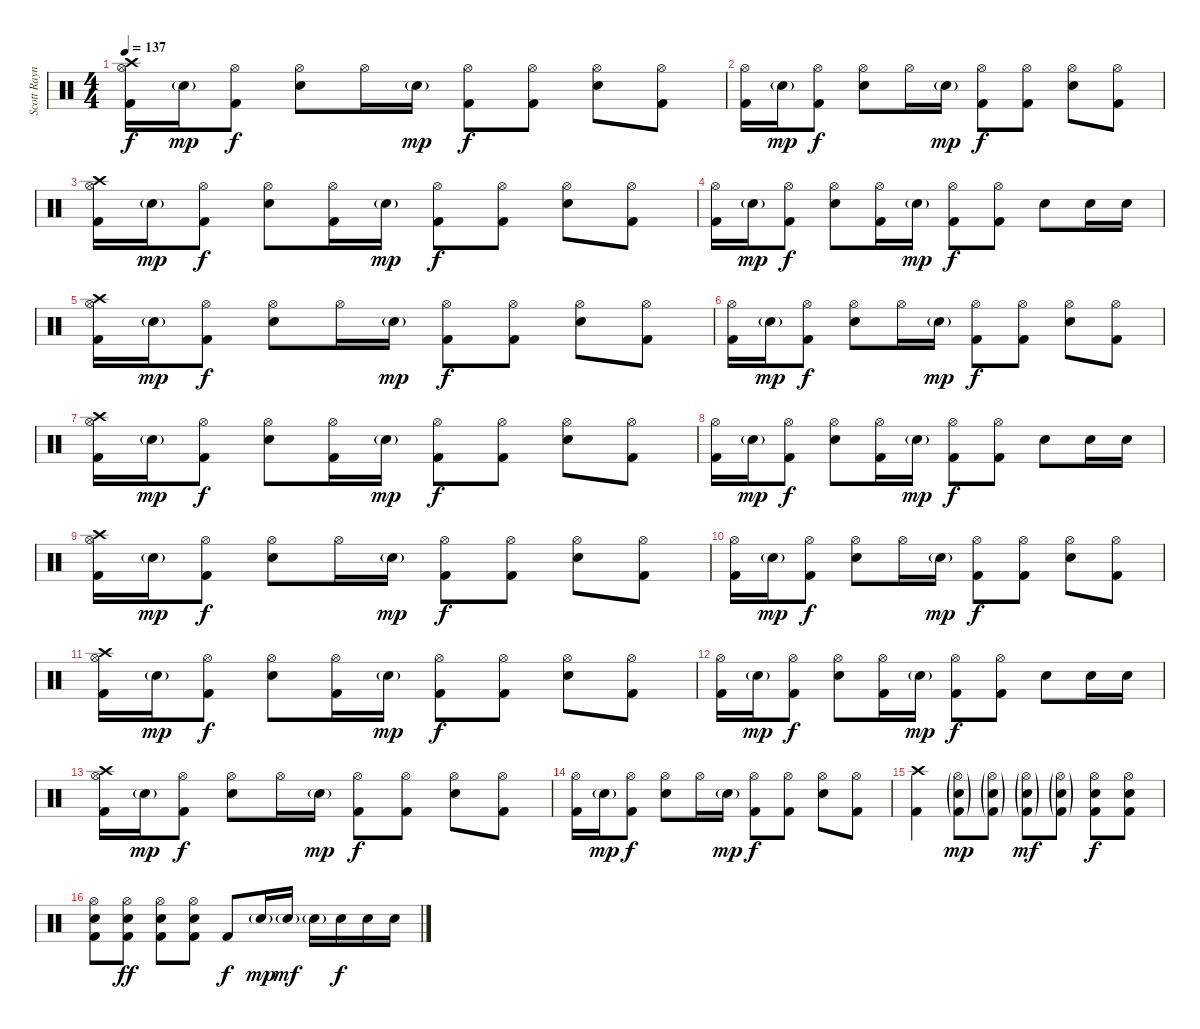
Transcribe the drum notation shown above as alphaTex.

\track ("Scott Raynor" "Scott Rayn") {instrument percussion}
\staff {score}
\articulation defaults
\ts (4 4)
\tempo 137
\clef neutral
\ks c
("Crash high (hit)" "Hi-Hat (open)" "Kick (hit) 2").16{dy f} "Snare (hit) 2"{g}.16{dy mp} ("Hi-Hat (open)" "Kick (hit) 2").8{dy f} ("Hi-Hat (open)" "Snare (hit) 2").8 "Hi-Hat (open)".16 "Snare (hit) 2"{g}.16{dy mp} ("Hi-Hat (open)" "Kick (hit) 2").8{dy f} ("Hi-Hat (open)" "Kick (hit) 2").8 ("Hi-Hat (open)" "Snare (hit) 2").8 ("Hi-Hat (open)" "Kick (hit) 2").8 |
("Hi-Hat (open)" "Kick (hit) 2").16 "Snare (hit) 2"{g}.16{dy mp} ("Hi-Hat (open)" "Kick (hit) 2").8{dy f} ("Hi-Hat (open)" "Snare (hit) 2").8 "Hi-Hat (open)".16 "Snare (hit) 2"{g}.16{dy mp} ("Hi-Hat (open)" "Kick (hit) 2").8{dy f} ("Hi-Hat (open)" "Kick (hit) 2").8 ("Hi-Hat (open)" "Snare (hit) 2").8 ("Hi-Hat (open)" "Kick (hit) 2").8 |
("Crash high (hit)" "Hi-Hat (open)" "Kick (hit) 2").16 "Snare (hit) 2"{g}.16{dy mp} ("Hi-Hat (open)" "Kick (hit) 2").8{dy f} ("Hi-Hat (open)" "Snare (hit) 2").8 ("Hi-Hat (open)" "Kick (hit) 2").16 "Snare (hit) 2"{g}.16{dy mp} ("Hi-Hat (open)" "Kick (hit) 2").8{dy f} ("Hi-Hat (open)" "Kick (hit) 2").8 ("Hi-Hat (open)" "Snare (hit) 2").8 ("Hi-Hat (open)" "Kick (hit) 2").8 |
("Hi-Hat (open)" "Kick (hit) 2").16 "Snare (hit) 2"{g}.16{dy mp} ("Hi-Hat (open)" "Kick (hit) 2").8{dy f} ("Hi-Hat (open)" "Snare (hit) 2").8 ("Hi-Hat (open)" "Kick (hit) 2").16 "Snare (hit) 2"{g}.16{dy mp} ("Hi-Hat (open)" "Kick (hit) 2").8{dy f} ("Hi-Hat (open)" "Kick (hit) 2").8 "Snare (hit) 2".8 "Snare (hit) 2".16 "Snare (hit) 2".16 |
("Crash high (hit)" "Hi-Hat (open)" "Kick (hit) 2").16 "Snare (hit) 2"{g}.16{dy mp} ("Hi-Hat (open)" "Kick (hit) 2").8{dy f} ("Hi-Hat (open)" "Snare (hit) 2").8 "Hi-Hat (open)".16 "Snare (hit) 2"{g}.16{dy mp} ("Hi-Hat (open)" "Kick (hit) 2").8{dy f} ("Hi-Hat (open)" "Kick (hit) 2").8 ("Hi-Hat (open)" "Snare (hit) 2").8 ("Hi-Hat (open)" "Kick (hit) 2").8 |
("Hi-Hat (open)" "Kick (hit) 2").16 "Snare (hit) 2"{g}.16{dy mp} ("Hi-Hat (open)" "Kick (hit) 2").8{dy f} ("Hi-Hat (open)" "Snare (hit) 2").8 "Hi-Hat (open)".16 "Snare (hit) 2"{g}.16{dy mp} ("Hi-Hat (open)" "Kick (hit) 2").8{dy f} ("Hi-Hat (open)" "Kick (hit) 2").8 ("Hi-Hat (open)" "Snare (hit) 2").8 ("Hi-Hat (open)" "Kick (hit) 2").8 |
("Crash high (hit)" "Hi-Hat (open)" "Kick (hit) 2").16 "Snare (hit) 2"{g}.16{dy mp} ("Hi-Hat (open)" "Kick (hit) 2").8{dy f} ("Hi-Hat (open)" "Snare (hit) 2").8 ("Hi-Hat (open)" "Kick (hit) 2").16 "Snare (hit) 2"{g}.16{dy mp} ("Hi-Hat (open)" "Kick (hit) 2").8{dy f} ("Hi-Hat (open)" "Kick (hit) 2").8 ("Hi-Hat (open)" "Snare (hit) 2").8 ("Hi-Hat (open)" "Kick (hit) 2").8 |
("Hi-Hat (open)" "Kick (hit) 2").16 "Snare (hit) 2"{g}.16{dy mp} ("Hi-Hat (open)" "Kick (hit) 2").8{dy f} ("Hi-Hat (open)" "Snare (hit) 2").8 ("Hi-Hat (open)" "Kick (hit) 2").16 "Snare (hit) 2"{g}.16{dy mp} ("Hi-Hat (open)" "Kick (hit) 2").8{dy f} ("Hi-Hat (open)" "Kick (hit) 2").8 "Snare (hit) 2".8 "Snare (hit) 2".16 "Snare (hit) 2".16 |
("Crash high (hit)" "Hi-Hat (open)" "Kick (hit) 2").16 "Snare (hit) 2"{g}.16{dy mp} ("Hi-Hat (open)" "Kick (hit) 2").8{dy f} ("Hi-Hat (open)" "Snare (hit) 2").8 "Hi-Hat (open)".16 "Snare (hit) 2"{g}.16{dy mp} ("Hi-Hat (open)" "Kick (hit) 2").8{dy f} ("Hi-Hat (open)" "Kick (hit) 2").8 ("Hi-Hat (open)" "Snare (hit) 2").8 ("Hi-Hat (open)" "Kick (hit) 2").8 |
("Hi-Hat (open)" "Kick (hit) 2").16 "Snare (hit) 2"{g}.16{dy mp} ("Hi-Hat (open)" "Kick (hit) 2").8{dy f} ("Hi-Hat (open)" "Snare (hit) 2").8 "Hi-Hat (open)".16 "Snare (hit) 2"{g}.16{dy mp} ("Hi-Hat (open)" "Kick (hit) 2").8{dy f} ("Hi-Hat (open)" "Kick (hit) 2").8 ("Hi-Hat (open)" "Snare (hit) 2").8 ("Hi-Hat (open)" "Kick (hit) 2").8 |
("Crash high (hit)" "Hi-Hat (open)" "Kick (hit) 2").16 "Snare (hit) 2"{g}.16{dy mp} ("Hi-Hat (open)" "Kick (hit) 2").8{dy f} ("Hi-Hat (open)" "Snare (hit) 2").8 ("Hi-Hat (open)" "Kick (hit) 2").16 "Snare (hit) 2"{g}.16{dy mp} ("Hi-Hat (open)" "Kick (hit) 2").8{dy f} ("Hi-Hat (open)" "Kick (hit) 2").8 ("Hi-Hat (open)" "Snare (hit) 2").8 ("Hi-Hat (open)" "Kick (hit) 2").8 |
("Hi-Hat (open)" "Kick (hit) 2").16 "Snare (hit) 2"{g}.16{dy mp} ("Hi-Hat (open)" "Kick (hit) 2").8{dy f} ("Hi-Hat (open)" "Snare (hit) 2").8 ("Hi-Hat (open)" "Kick (hit) 2").16 "Snare (hit) 2"{g}.16{dy mp} ("Hi-Hat (open)" "Kick (hit) 2").8{dy f} ("Hi-Hat (open)" "Kick (hit) 2").8 "Snare (hit) 2".8 "Snare (hit) 2".16 "Snare (hit) 2".16 |
("Crash high (hit)" "Hi-Hat (open)" "Kick (hit) 2").16 "Snare (hit) 2"{g}.16{dy mp} ("Hi-Hat (open)" "Kick (hit) 2").8{dy f} ("Hi-Hat (open)" "Snare (hit) 2").8 "Hi-Hat (open)".16 "Snare (hit) 2"{g}.16{dy mp} ("Hi-Hat (open)" "Kick (hit) 2").8{dy f} ("Hi-Hat (open)" "Kick (hit) 2").8 ("Hi-Hat (open)" "Snare (hit) 2").8 ("Hi-Hat (open)" "Kick (hit) 2").8 |
("Hi-Hat (open)" "Kick (hit) 2").16 "Snare (hit) 2"{g}.16{dy mp} ("Hi-Hat (open)" "Kick (hit) 2").8{dy f} ("Hi-Hat (open)" "Snare (hit) 2").8 "Hi-Hat (open)".16 "Snare (hit) 2"{g}.16{dy mp} ("Hi-Hat (open)" "Kick (hit) 2").8{dy f} ("Hi-Hat (open)" "Kick (hit) 2").8 ("Hi-Hat (open)" "Snare (hit) 2").8 ("Hi-Hat (open)" "Kick (hit) 2").8 |
("Crash high (hit)" "Kick (hit) 2").4 ("Hi-Hat (open)"{g} "Snare (hit) 2"{g} "Kick (hit) 2"{g}).8{dy mp} ("Hi-Hat (open)"{g} "Snare (hit) 2"{g} "Kick (hit) 2"{g}).8 ("Hi-Hat (open)"{g} "Snare (hit) 2"{g} "Kick (hit) 2"{g}).8{dy mf} ("Hi-Hat (open)"{g} "Snare (hit) 2"{g} "Kick (hit) 2"{g}).8 ("Hi-Hat (open)" "Snare (hit) 2" "Kick (hit) 2").8{dy f} ("Hi-Hat (open)" "Snare (hit) 2" "Kick (hit) 2").8 |
("Hi-Hat (open)" "Snare (hit) 2" "Kick (hit) 2").8 ("Hi-Hat (open)" "Snare (hit) 2" "Kick (hit) 2").8{dy ff} ("Hi-Hat (open)" "Snare (hit) 2" "Kick (hit) 2").8 ("Hi-Hat (open)" "Snare (hit) 2" "Kick (hit) 2").8 "Kick (hit) 2".8{dy f} "Snare (hit) 2"{g}.16{dy mp} "Snare (hit) 2"{g}.16{dy mf} "Snare (hit) 2"{g}.16 "Snare (hit) 2".16{dy f} "Snare (hit) 2".16 "Snare (hit) 2".16
